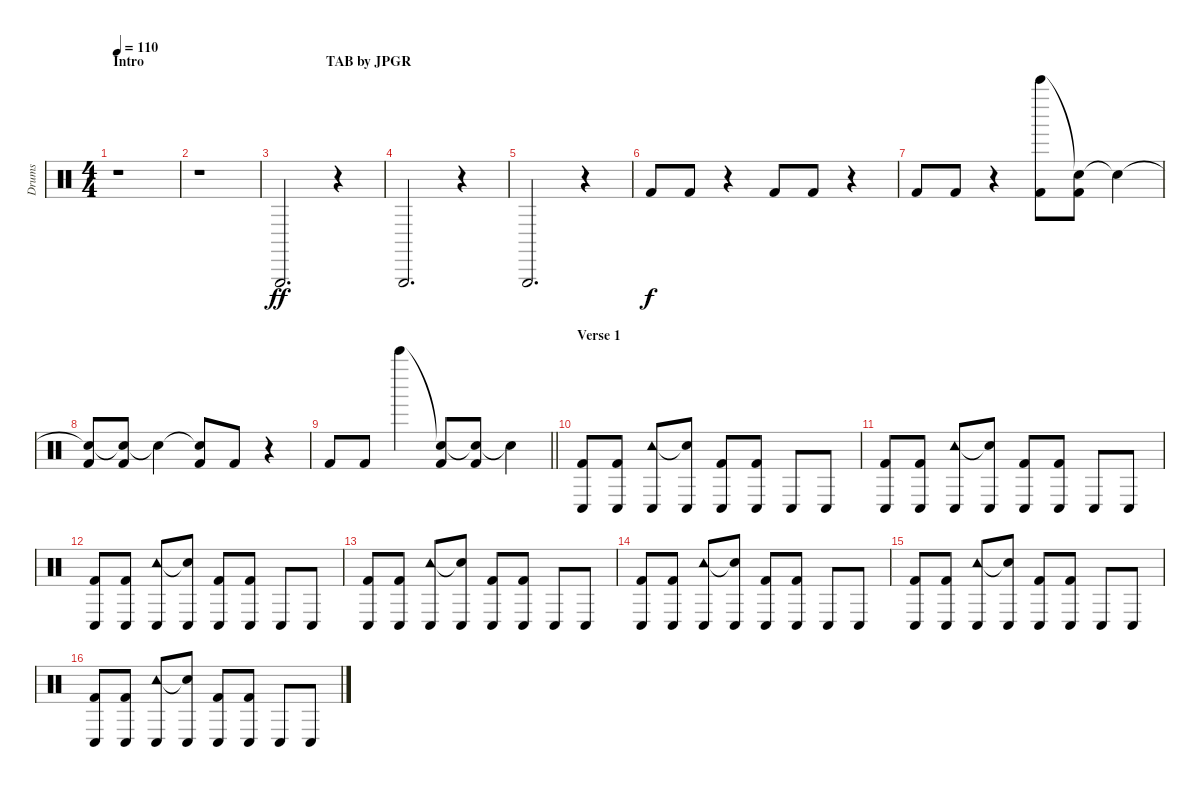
\track ("Drums" "Drums") {instrument percussion}
\staff {score}
\articulation defaults
\ts (4 4)
\section ("" "Intro                                                    TAB by JPGR")
\tempo 110
\clef neutral
\ks c
r.1{dy ff} |
r.1 |
"Triangle (hit)".2{d} r.4 |
"Triangle (hit)".2{d} r.4 |
"Triangle (hit)".2{d} r.4 |
"Kick (hit) 2".8{dy f} "Kick (hit) 2".8 r.4 "Kick (hit) 2".8 "Kick (hit) 2".8 r.4 |
"Kick (hit) 2".8 "Kick (hit) 2".8 r.4 ("Bell Tree (hit)" "Kick (hit) 2").8 ("Snare (hit)"{t} "Kick (hit) 2").8 "Snare (hit)"{t}.4 |
("Snare (hit)"{t} "Kick (hit) 2").8 ("Snare (hit)"{t} "Kick (hit) 2").8 "Snare (hit)"{t}.4 ("Snare (hit)"{t} "Kick (hit) 2").8 "Kick (hit) 2".8 r.4 |
\barLineRight lightlight "Kick (hit) 2".8 "Kick (hit) 2".8 "Bell Tree (hit)".4
("Snare (hit)"{t} "Kick (hit) 2").8 ("Snare (hit)"{t} "Kick (hit) 2").8 "Snare (hit)"{t}.4 |
\section ("" "Verse 1")
("Conga low (hit)" "Kick (hit) 2").8 ("Conga low (hit)" "Kick (hit) 2").8 ("Tambourine (hit)" "Conga low (hit)").8 ("Snare (hit)"{t} "Conga low (hit)").8 ("Conga low (hit)" "Kick (hit) 2").8 ("Conga low (hit)" "Kick (hit) 2").8 "Conga low (hit)".8 "Conga low (hit)".8 |
("Conga low (hit)" "Kick (hit) 2").8 ("Conga low (hit)" "Kick (hit) 2").8 ("Tambourine (hit)" "Conga low (hit)").8 ("Snare (hit)"{t} "Conga low (hit)").8 ("Conga low (hit)" "Kick (hit) 2").8 ("Conga low (hit)" "Kick (hit) 2").8 "Conga low (hit)".8 "Conga low (hit)".8 |
("Conga low (hit)" "Kick (hit) 2").8 ("Conga low (hit)" "Kick (hit) 2").8 ("Tambourine (hit)" "Conga low (hit)").8 ("Snare (hit)"{t} "Conga low (hit)").8 ("Conga low (hit)" "Kick (hit) 2").8 ("Conga low (hit)" "Kick (hit) 2").8 "Conga low (hit)".8 "Conga low (hit)".8 |
("Conga low (hit)" "Kick (hit) 2").8 ("Conga low (hit)" "Kick (hit) 2").8 ("Tambourine (hit)" "Conga low (hit)").8 ("Snare (hit)"{t} "Conga low (hit)").8 ("Conga low (hit)" "Kick (hit) 2").8 ("Conga low (hit)" "Kick (hit) 2").8 "Conga low (hit)".8 "Conga low (hit)".8 |
("Conga low (hit)" "Kick (hit) 2").8 ("Conga low (hit)" "Kick (hit) 2").8 ("Tambourine (hit)" "Conga low (hit)").8 ("Snare (hit)"{t} "Conga low (hit)").8 ("Conga low (hit)" "Kick (hit) 2").8 ("Conga low (hit)" "Kick (hit) 2").8 "Conga low (hit)".8 "Conga low (hit)".8 |
("Conga low (hit)" "Kick (hit) 2").8 ("Conga low (hit)" "Kick (hit) 2").8 ("Tambourine (hit)" "Conga low (hit)").8 ("Snare (hit)"{t} "Conga low (hit)").8 ("Conga low (hit)" "Kick (hit) 2").8 ("Conga low (hit)" "Kick (hit) 2").8 "Conga low (hit)".8 "Conga low (hit)".8 |
("Conga low (hit)" "Kick (hit) 2").8 ("Conga low (hit)" "Kick (hit) 2").8 ("Tambourine (hit)" "Conga low (hit)").8 ("Snare (hit)"{t} "Conga low (hit)").8 ("Conga low (hit)" "Kick (hit) 2").8 ("Conga low (hit)" "Kick (hit) 2").8 "Conga low (hit)".8 "Conga low (hit)".8
